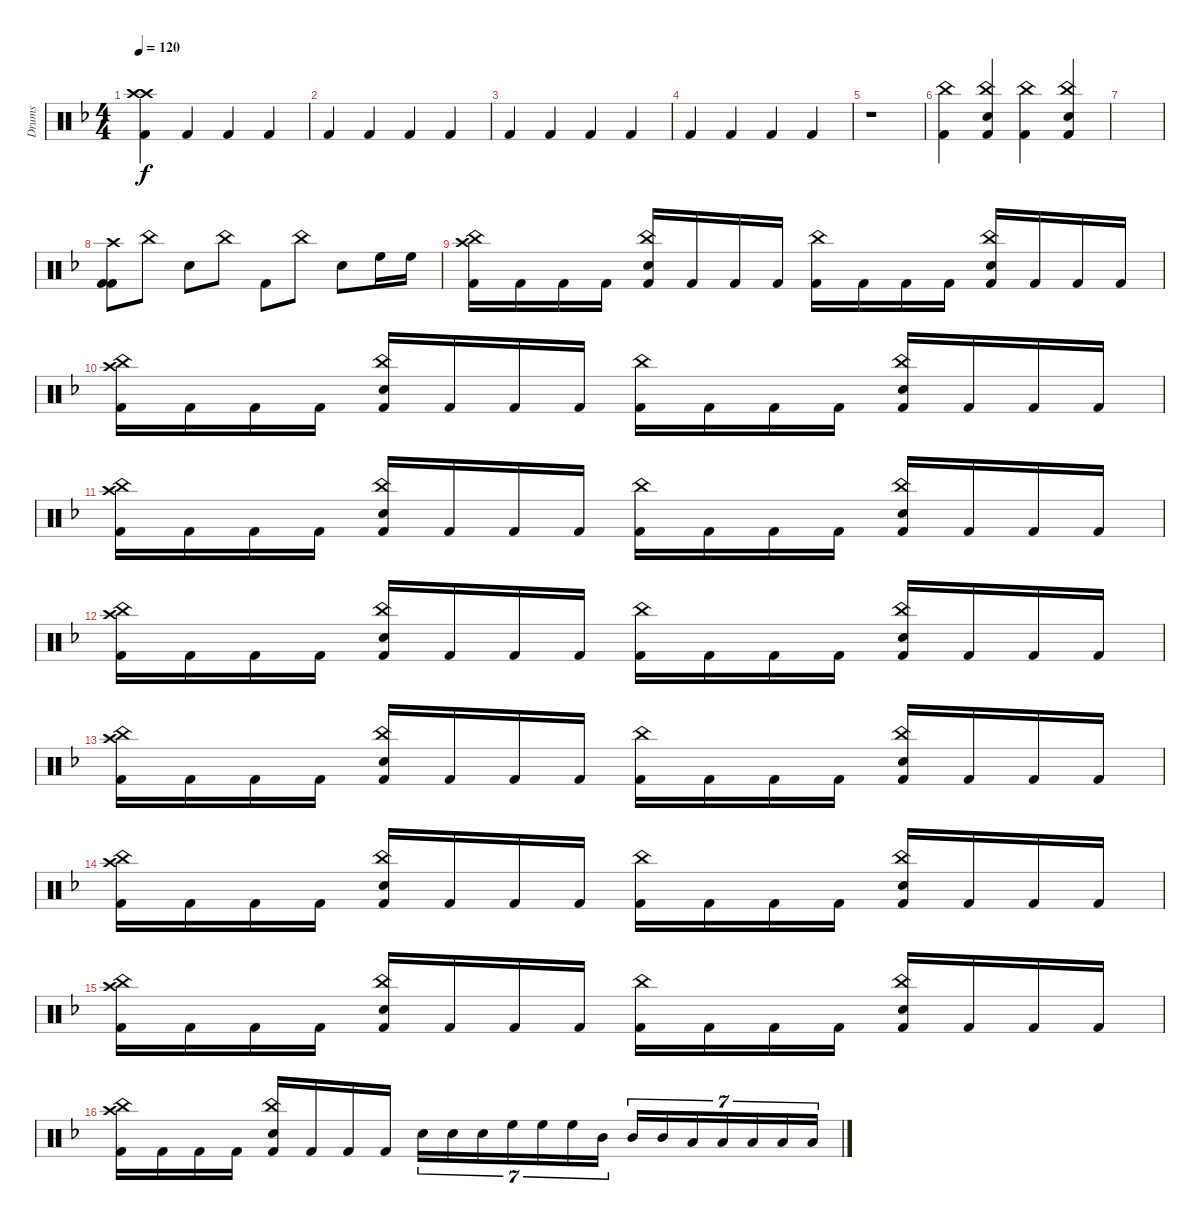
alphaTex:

\track ("Drums" "Drums") {instrument percussion}
\staff {score}
\articulation defaults
\ts (4 4)
\tempo 120
\clef neutral
\ks dminor
("Crash high (hit)" "Crash high (hit)" "Kick (hit) 2").4{dy f} "Kick (hit) 2".4 "Kick (hit) 2".4 "Kick (hit) 2".4 |
"Kick (hit) 2".4 "Kick (hit) 2".4 "Kick (hit) 2".4 "Kick (hit) 2".4 |
"Kick (hit) 2".4 "Kick (hit) 2".4 "Kick (hit) 2".4 "Kick (hit) 2".4 |
"Kick (hit) 2".4 "Kick (hit) 2".4 "Kick (hit) 2".4 "Kick (hit) 2".4 |
r.1 |
("China (hit)" "Kick (hit) 2").4 ("China (hit)" "Snare (hit) 2" "Kick (hit) 2").4 ("China (hit)" "Kick (hit) 2").4 ("China (hit)" "Snare (hit) 2" "Kick (hit) 2").4 |
|
("Crash high (hit)" "Kick (hit) 2" "Kick (hit) 2").8 "China (hit)".8 "Snare (hit) 2".8 "China (hit)".8 "Kick (hit) 2".8 "China (hit)".8 "Snare (hit) 2".8 "High Floor Tom (hit)".16 "High Floor Tom (hit)".16 |
("China (hit)" "Crash high (hit)" "Kick (hit) 2").16 "Kick (hit) 2".16 "Kick (hit) 2".16 "Kick (hit) 2".16 ("China (hit)" "Snare (hit) 2" "Kick (hit) 2").16 "Kick (hit) 2".16 "Kick (hit) 2".16 "Kick (hit) 2".16 ("China (hit)" "Kick (hit) 2").16 "Kick (hit) 2".16 "Kick (hit) 2".16 "Kick (hit) 2".16 ("China (hit)" "Snare (hit) 2" "Kick (hit) 2").16 "Kick (hit) 2".16 "Kick (hit) 2".16 "Kick (hit) 2".16 |
("China (hit)" "Crash high (hit)" "Kick (hit) 2").16 "Kick (hit) 2".16 "Kick (hit) 2".16 "Kick (hit) 2".16 ("China (hit)" "Snare (hit) 2" "Kick (hit) 2").16 "Kick (hit) 2".16 "Kick (hit) 2".16 "Kick (hit) 2".16 ("China (hit)" "Kick (hit) 2").16 "Kick (hit) 2".16 "Kick (hit) 2".16 "Kick (hit) 2".16 ("China (hit)" "Snare (hit) 2" "Kick (hit) 2").16 "Kick (hit) 2".16 "Kick (hit) 2".16 "Kick (hit) 2".16 |
("China (hit)" "Crash high (hit)" "Kick (hit) 2").16 "Kick (hit) 2".16 "Kick (hit) 2".16 "Kick (hit) 2".16 ("China (hit)" "Snare (hit) 2" "Kick (hit) 2").16 "Kick (hit) 2".16 "Kick (hit) 2".16 "Kick (hit) 2".16 ("China (hit)" "Kick (hit) 2").16 "Kick (hit) 2".16 "Kick (hit) 2".16 "Kick (hit) 2".16 ("China (hit)" "Snare (hit) 2" "Kick (hit) 2").16 "Kick (hit) 2".16 "Kick (hit) 2".16 "Kick (hit) 2".16 |
("China (hit)" "Crash high (hit)" "Kick (hit) 2").16 "Kick (hit) 2".16 "Kick (hit) 2".16 "Kick (hit) 2".16 ("China (hit)" "Snare (hit) 2" "Kick (hit) 2").16 "Kick (hit) 2".16 "Kick (hit) 2".16 "Kick (hit) 2".16 ("China (hit)" "Kick (hit) 2").16 "Kick (hit) 2".16 "Kick (hit) 2".16 "Kick (hit) 2".16 ("China (hit)" "Snare (hit) 2" "Kick (hit) 2").16 "Kick (hit) 2".16 "Kick (hit) 2".16 "Kick (hit) 2".16 |
("China (hit)" "Crash high (hit)" "Kick (hit) 2").16 "Kick (hit) 2".16 "Kick (hit) 2".16 "Kick (hit) 2".16 ("China (hit)" "Snare (hit) 2" "Kick (hit) 2").16 "Kick (hit) 2".16 "Kick (hit) 2".16 "Kick (hit) 2".16 ("China (hit)" "Kick (hit) 2").16 "Kick (hit) 2".16 "Kick (hit) 2".16 "Kick (hit) 2".16 ("China (hit)" "Snare (hit) 2" "Kick (hit) 2").16 "Kick (hit) 2".16 "Kick (hit) 2".16 "Kick (hit) 2".16 |
("China (hit)" "Crash high (hit)" "Kick (hit) 2").16 "Kick (hit) 2".16 "Kick (hit) 2".16 "Kick (hit) 2".16 ("China (hit)" "Snare (hit) 2" "Kick (hit) 2").16 "Kick (hit) 2".16 "Kick (hit) 2".16 "Kick (hit) 2".16 ("China (hit)" "Kick (hit) 2").16 "Kick (hit) 2".16 "Kick (hit) 2".16 "Kick (hit) 2".16 ("China (hit)" "Snare (hit) 2" "Kick (hit) 2").16 "Kick (hit) 2".16 "Kick (hit) 2".16 "Kick (hit) 2".16 |
("China (hit)" "Crash high (hit)" "Kick (hit) 2").16 "Kick (hit) 2".16 "Kick (hit) 2".16 "Kick (hit) 2".16 ("China (hit)" "Snare (hit) 2" "Kick (hit) 2").16 "Kick (hit) 2".16 "Kick (hit) 2".16 "Kick (hit) 2".16 ("China (hit)" "Kick (hit) 2").16 "Kick (hit) 2".16 "Kick (hit) 2".16 "Kick (hit) 2".16 ("China (hit)" "Snare (hit) 2" "Kick (hit) 2").16 "Kick (hit) 2".16 "Kick (hit) 2".16 "Kick (hit) 2".16 |
("China (hit)" "Crash high (hit)" "Kick (hit) 2").16 "Kick (hit) 2".16 "Kick (hit) 2".16 "Kick (hit) 2".16 ("China (hit)" "Snare (hit) 2" "Kick (hit) 2").16 "Kick (hit) 2".16 "Kick (hit) 2".16 "Kick (hit) 2".16 "Snare (hit) 2".16{tu (7 4)} "Snare (hit) 2".16{tu (7 4)} "Snare (hit) 2".16{tu (7 4)} "High Floor Tom (hit)".16{tu (7 4)} "High Floor Tom (hit)".16{tu (7 4)} "High Floor Tom (hit)".16{tu (7 4)} "Mid Tom (hit)".16{tu (7 4)} "Mid Tom (hit)".16{tu (7 4)} "Mid Tom (hit)".16{tu (7 4)} "Low Tom (hit)".16{tu (7 4)} "Low Tom (hit)".16{tu (7 4)} "Low Tom (hit)".16{tu (7 4)} "Low Floor Tom (hit)".16{tu (7 4)} "Low Floor Tom (hit)".16{tu (7 4)}
